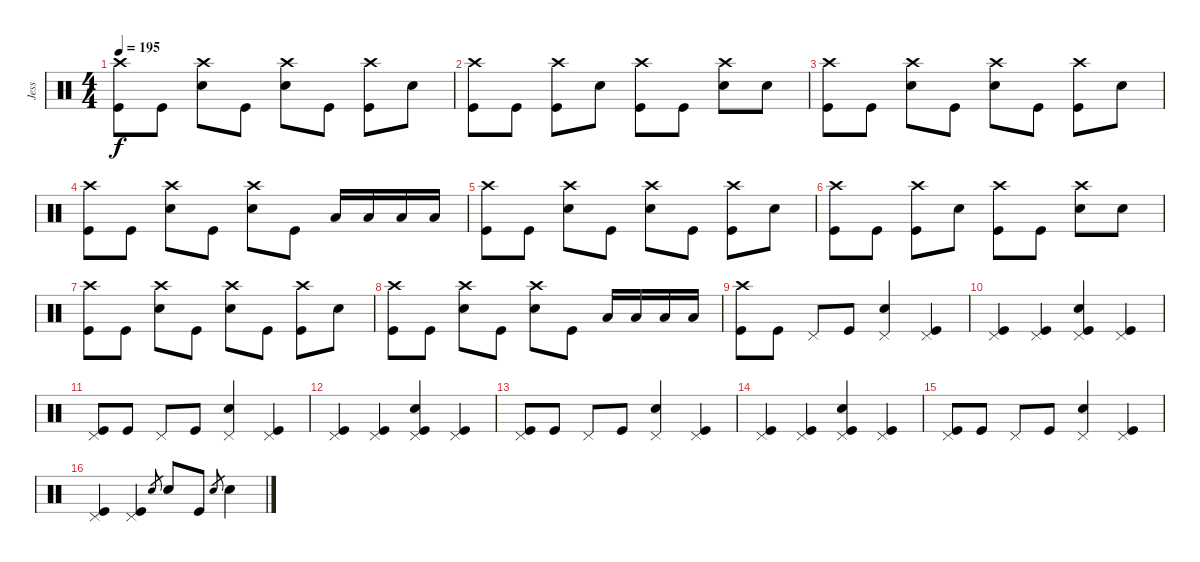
\track ("Jess" "Jess") {instrument percussion}
\staff {score}
\articulation defaults
\ts (4 4)
\tempo 195
\clef neutral
\ks c
("Crash high (hit)" "Kick (hit)").8{dy f} "Kick (hit)".8 ("Crash high (hit)" "Electric Snare (hit)").8 "Kick (hit)".8 ("Crash high (hit)" "Electric Snare (hit)").8 "Kick (hit)".8 ("Crash high (hit)" "Kick (hit)").8 "Electric Snare (hit)".8 |
("Crash high (hit)" "Kick (hit)").8 "Kick (hit)".8 ("Crash high (hit)" "Kick (hit)").8 "Electric Snare (hit)".8 ("Crash high (hit)" "Kick (hit)").8 "Kick (hit)".8 ("Crash high (hit)" "Electric Snare (hit)").8 "Electric Snare (hit)".8 |
("Crash high (hit)" "Kick (hit)").8 "Kick (hit)".8 ("Crash high (hit)" "Electric Snare (hit)").8 "Kick (hit)".8 ("Crash high (hit)" "Electric Snare (hit)").8 "Kick (hit)".8 ("Crash high (hit)" "Kick (hit)").8 "Electric Snare (hit)".8 |
("Crash high (hit)" "Kick (hit)").8 "Kick (hit)".8 ("Crash high (hit)" "Electric Snare (hit)").8 "Kick (hit)".8 ("Crash high (hit)" "Electric Snare (hit)").8 "Kick (hit)".8 "Low Tom (hit)".16 "Low Tom (hit)".16 "Low Floor Tom (hit)".16 "Low Floor Tom (hit)".16 |
("Crash high (hit)" "Kick (hit)").8 "Kick (hit)".8 ("Crash high (hit)" "Electric Snare (hit)").8 "Kick (hit)".8 ("Crash high (hit)" "Electric Snare (hit)").8 "Kick (hit)".8 ("Crash high (hit)" "Kick (hit)").8 "Electric Snare (hit)".8 |
("Crash high (hit)" "Kick (hit)").8 "Kick (hit)".8 ("Crash high (hit)" "Kick (hit)").8 "Electric Snare (hit)".8 ("Crash high (hit)" "Kick (hit)").8 "Kick (hit)".8 ("Crash high (hit)" "Electric Snare (hit)").8 "Electric Snare (hit)".8 |
("Crash high (hit)" "Kick (hit)").8 "Kick (hit)".8 ("Crash high (hit)" "Electric Snare (hit)").8 "Kick (hit)".8 ("Crash high (hit)" "Electric Snare (hit)").8 "Kick (hit)".8 ("Crash high (hit)" "Kick (hit)").8 "Electric Snare (hit)".8 |
("Crash high (hit)" "Kick (hit)").8 "Kick (hit)".8 ("Crash high (hit)" "Electric Snare (hit)").8 "Kick (hit)".8 ("Crash high (hit)" "Electric Snare (hit)").8 "Kick (hit)".8 "Low Tom (hit)".16 "Low Tom (hit)".16 "Low Floor Tom (hit)".16 "Low Floor Tom (hit)".16 |
("Crash high (hit)" "Kick (hit)").8 "Kick (hit)".8 "Pedal Hi-Hat (hit)".8 "Kick (hit)".8 ("Pedal Hi-Hat (hit)" "Electric Snare (hit)").4 ("Pedal Hi-Hat (hit)" "Kick (hit)").4 |
("Pedal Hi-Hat (hit)" "Kick (hit)").4 ("Pedal Hi-Hat (hit)" "Kick (hit)").4 ("Pedal Hi-Hat (hit)" "Electric Snare (hit)" "Kick (hit)").4 ("Pedal Hi-Hat (hit)" "Kick (hit)").4 |
("Pedal Hi-Hat (hit)" "Kick (hit)").8 "Kick (hit)".8 "Pedal Hi-Hat (hit)".8 "Kick (hit)".8 ("Pedal Hi-Hat (hit)" "Electric Snare (hit)").4 ("Pedal Hi-Hat (hit)" "Kick (hit)").4 |
("Pedal Hi-Hat (hit)" "Kick (hit)").4 ("Pedal Hi-Hat (hit)" "Kick (hit)").4 ("Pedal Hi-Hat (hit)" "Electric Snare (hit)" "Kick (hit)").4 ("Pedal Hi-Hat (hit)" "Kick (hit)").4 |
("Pedal Hi-Hat (hit)" "Kick (hit)").8 "Kick (hit)".8 "Pedal Hi-Hat (hit)".8 "Kick (hit)".8 ("Pedal Hi-Hat (hit)" "Electric Snare (hit)").4 ("Pedal Hi-Hat (hit)" "Kick (hit)").4 |
("Pedal Hi-Hat (hit)" "Kick (hit)").4 ("Pedal Hi-Hat (hit)" "Kick (hit)").4 ("Pedal Hi-Hat (hit)" "Electric Snare (hit)" "Kick (hit)").4 ("Pedal Hi-Hat (hit)" "Kick (hit)").4 |
("Pedal Hi-Hat (hit)" "Kick (hit)").8 "Kick (hit)".8 "Pedal Hi-Hat (hit)".8 "Kick (hit)".8 ("Pedal Hi-Hat (hit)" "Electric Snare (hit)").4 ("Pedal Hi-Hat (hit)" "Kick (hit)").4 |
("Pedal Hi-Hat (hit)" "Kick (hit)").4 ("Pedal Hi-Hat (hit)" "Kick (hit)").4 "Electric Snare (hit)".8{gr} "Electric Snare (hit)".8 "Kick (hit)".8 "Electric Snare (hit)".8{gr} "Electric Snare (hit)".4
